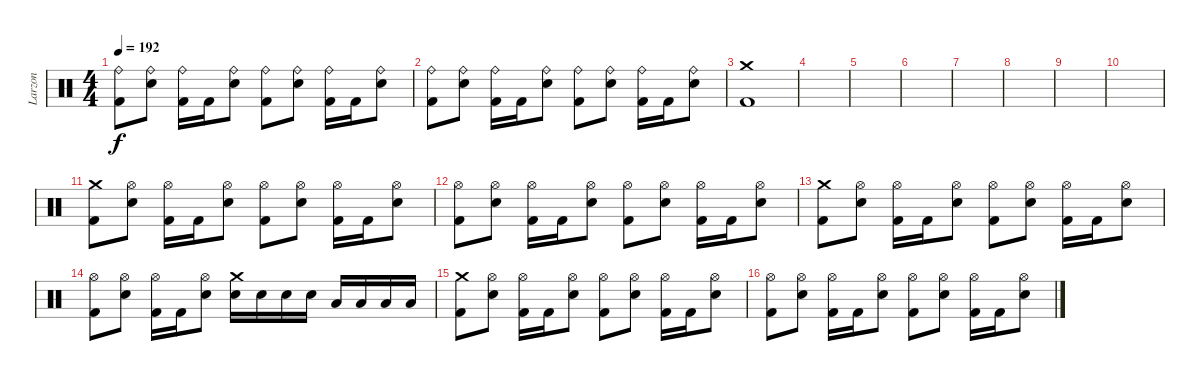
\track ("Larzon" "Larzon") {instrument percussion}
\staff {score}
\articulation defaults
\ts (4 4)
\tempo 192
\clef neutral
\ks c
("Ride (bell)" "Kick (hit) 2").8{dy f} ("Ride (bell)" "Electric Snare (hit)").8 ("Ride (bell)" "Kick (hit) 2").16 "Kick (hit) 2".16 ("Ride (bell)" "Electric Snare (hit)").8 ("Ride (bell)" "Kick (hit) 2").8 ("Ride (bell)" "Electric Snare (hit)").8 ("Ride (bell)" "Kick (hit) 2").16 "Kick (hit) 2".16 ("Ride (bell)" "Electric Snare (hit)").8 |
("Ride (bell)" "Kick (hit) 2").8 ("Ride (bell)" "Electric Snare (hit)").8 ("Ride (bell)" "Kick (hit) 2").16 "Kick (hit) 2".16 ("Ride (bell)" "Electric Snare (hit)").8 ("Ride (bell)" "Kick (hit) 2").8 ("Ride (bell)" "Electric Snare (hit)").8 ("Ride (bell)" "Kick (hit) 2").16 "Kick (hit) 2".16 ("Ride (bell)" "Electric Snare (hit)").8 |
("Crash medium (hit)" "Kick (hit) 2").1 |
|
|
|
|
|
|
|
("Crash medium (hit)" "Kick (hit) 2").8 ("Hi-Hat (open)" "Electric Snare (hit)").8 ("Hi-Hat (open)" "Kick (hit) 2").16 "Kick (hit) 2".16 ("Hi-Hat (open)" "Electric Snare (hit)").8 ("Hi-Hat (open)" "Kick (hit) 2").8 ("Hi-Hat (open)" "Electric Snare (hit)").8 ("Hi-Hat (open)" "Kick (hit) 2").16 "Kick (hit) 2".16 ("Hi-Hat (open)" "Electric Snare (hit)").8 |
("Hi-Hat (open)" "Kick (hit) 2").8 ("Hi-Hat (open)" "Electric Snare (hit)").8 ("Hi-Hat (open)" "Kick (hit) 2").16 "Kick (hit) 2".16 ("Hi-Hat (open)" "Electric Snare (hit)").8 ("Hi-Hat (open)" "Kick (hit) 2").8 ("Hi-Hat (open)" "Electric Snare (hit)").8 ("Hi-Hat (open)" "Kick (hit) 2").16 "Kick (hit) 2".16 ("Hi-Hat (open)" "Electric Snare (hit)").8 |
("Crash medium (hit)" "Kick (hit) 2").8 ("Hi-Hat (open)" "Electric Snare (hit)").8 ("Hi-Hat (open)" "Kick (hit) 2").16 "Kick (hit) 2".16 ("Hi-Hat (open)" "Electric Snare (hit)").8 ("Hi-Hat (open)" "Kick (hit) 2").8 ("Hi-Hat (open)" "Electric Snare (hit)").8 ("Hi-Hat (open)" "Kick (hit) 2").16 "Kick (hit) 2".16 ("Hi-Hat (open)" "Electric Snare (hit)").8 |
("Hi-Hat (open)" "Kick (hit) 2").8 ("Hi-Hat (open)" "Electric Snare (hit)").8 ("Hi-Hat (open)" "Kick (hit) 2").16 "Kick (hit) 2".16 ("Hi-Hat (open)" "Electric Snare (hit)").8 ("Crash medium (hit)" "Electric Snare (hit)").16 "Electric Snare (hit)".16 "Electric Snare (hit)".16 "Electric Snare (hit)".16 "Low Tom (hit)".16 "Low Tom (hit)".16 "Low Tom (hit)".16 "Low Tom (hit)".16 |
("Crash medium (hit)" "Kick (hit) 2").8 ("Hi-Hat (open)" "Electric Snare (hit)").8 ("Hi-Hat (open)" "Kick (hit) 2").16 "Kick (hit) 2".16 ("Hi-Hat (open)" "Electric Snare (hit)").8 ("Hi-Hat (open)" "Kick (hit) 2").8 ("Hi-Hat (open)" "Electric Snare (hit)").8 ("Hi-Hat (open)" "Kick (hit) 2").16 "Kick (hit) 2".16 ("Hi-Hat (open)" "Electric Snare (hit)").8 |
("Hi-Hat (open)" "Kick (hit) 2").8 ("Hi-Hat (open)" "Electric Snare (hit)").8 ("Hi-Hat (open)" "Kick (hit) 2").16 "Kick (hit) 2".16 ("Hi-Hat (open)" "Electric Snare (hit)").8 ("Hi-Hat (open)" "Kick (hit) 2").8 ("Hi-Hat (open)" "Electric Snare (hit)").8 ("Hi-Hat (open)" "Kick (hit) 2").16 "Kick (hit) 2".16 ("Hi-Hat (open)" "Electric Snare (hit)").8
